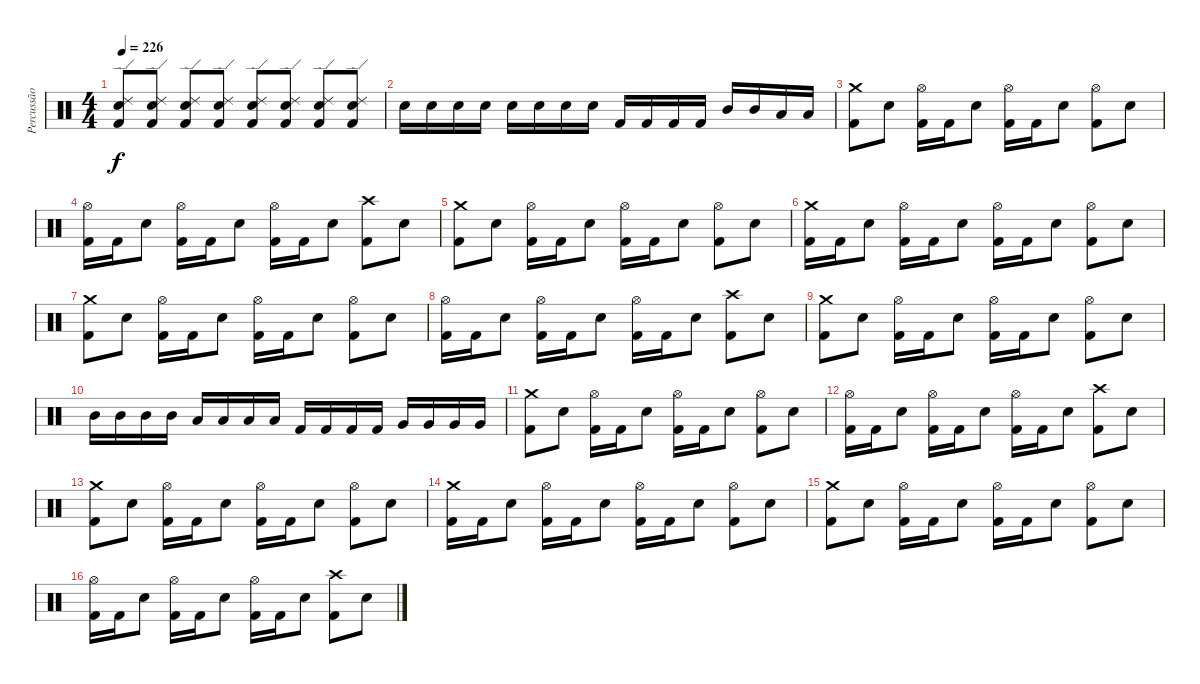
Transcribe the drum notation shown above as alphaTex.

\track ("Percussão" "Percussão") {instrument percussion}
\staff {score}
\articulation defaults
\ts (4 4)
\tempo 226
\clef neutral
\ks c
("Ride (edge) 2" "Electric Snare (hit)" "Kick (hit) 2").8{dy f} ("Ride (edge) 2" "Electric Snare (hit)" "Kick (hit) 2").8 ("Ride (edge) 2" "Electric Snare (hit)" "Kick (hit) 2").8 ("Ride (edge) 2" "Electric Snare (hit)" "Kick (hit) 2").8 ("Ride (edge) 2" "Electric Snare (hit)" "Kick (hit) 2").8 ("Ride (edge) 2" "Electric Snare (hit)" "Kick (hit) 2").8 ("Ride (edge) 2" "Electric Snare (hit)" "Kick (hit) 2").8 ("Ride (edge) 2" "Electric Snare (hit)" "Kick (hit) 2").8 |
"Electric Snare (hit)".16 "Electric Snare (hit)".16 "Electric Snare (hit)".16 "Electric Snare (hit)".16 "Electric Snare (hit)".16 "Electric Snare (hit)".16 "Electric Snare (hit)".16 "Electric Snare (hit)".16 "Kick (hit) 2".16 "Kick (hit) 2".16 "Kick (hit) 2".16 "Kick (hit) 2".16 "Mid Tom (hit)".16 "Mid Tom (hit)".16 "Low Tom (hit)".16 "Low Tom (hit)".16 |
("Crash medium (hit)" "Kick (hit) 2").8 "Electric Snare (hit)".8 ("Hi-Hat (open)" "Kick (hit) 2").16 "Kick (hit) 2".16 "Electric Snare (hit)".8 ("Hi-Hat (open)" "Kick (hit) 2").16 "Kick (hit) 2".16 "Electric Snare (hit)".8 ("Hi-Hat (open)" "Kick (hit) 2").8 "Electric Snare (hit)".8 |
("Hi-Hat (open)" "Kick (hit) 2").16 "Kick (hit) 2".16 "Electric Snare (hit)".8 ("Hi-Hat (open)" "Kick (hit) 2").16 "Kick (hit) 2".16 "Electric Snare (hit)".8 ("Hi-Hat (open)" "Kick (hit) 2").16 "Kick (hit) 2".16 "Electric Snare (hit)".8 ("Crash high (hit)" "Kick (hit) 2").8 "Electric Snare (hit)".8 |
("Crash medium (hit)" "Kick (hit) 2").8 "Electric Snare (hit)".8 ("Hi-Hat (open)" "Kick (hit) 2").16 "Kick (hit) 2".16 "Electric Snare (hit)".8 ("Hi-Hat (open)" "Kick (hit) 2").16 "Kick (hit) 2".16 "Electric Snare (hit)".8 ("Hi-Hat (open)" "Kick (hit) 2").8 "Electric Snare (hit)".8 |
("Crash medium (hit)" "Kick (hit) 2").16 "Kick (hit) 2".16 "Electric Snare (hit)".8 ("Hi-Hat (open)" "Kick (hit) 2").16 "Kick (hit) 2".16 "Electric Snare (hit)".8 ("Hi-Hat (open)" "Kick (hit) 2").16 "Kick (hit) 2".16 "Electric Snare (hit)".8 ("Hi-Hat (open)" "Kick (hit) 2").8 "Electric Snare (hit)".8 |
("Crash medium (hit)" "Kick (hit) 2").8 "Electric Snare (hit)".8 ("Hi-Hat (open)" "Kick (hit) 2").16 "Kick (hit) 2".16 "Electric Snare (hit)".8 ("Hi-Hat (open)" "Kick (hit) 2").16 "Kick (hit) 2".16 "Electric Snare (hit)".8 ("Hi-Hat (open)" "Kick (hit) 2").8 "Electric Snare (hit)".8 |
("Hi-Hat (open)" "Kick (hit) 2").16 "Kick (hit) 2".16 "Electric Snare (hit)".8 ("Hi-Hat (open)" "Kick (hit) 2").16 "Kick (hit) 2".16 "Electric Snare (hit)".8 ("Hi-Hat (open)" "Kick (hit) 2").16 "Kick (hit) 2".16 "Electric Snare (hit)".8 ("Crash high (hit)" "Kick (hit) 2").8 "Electric Snare (hit)".8 |
("Crash medium (hit)" "Kick (hit) 2").8 "Electric Snare (hit)".8 ("Hi-Hat (open)" "Kick (hit) 2").16 "Kick (hit) 2".16 "Electric Snare (hit)".8 ("Hi-Hat (open)" "Kick (hit) 2").16 "Kick (hit) 2".16 "Electric Snare (hit)".8 ("Hi-Hat (open)" "Kick (hit) 2").8 "Electric Snare (hit)".8 |
"Mid Tom (hit)".16 "Mid Tom (hit)".16 "Mid Tom (hit)".16 "Mid Tom (hit)".16 "Low Tom (hit)".16 "Low Tom (hit)".16 "Low Tom (hit)".16 "Low Tom (hit)".16 "Kick (hit) 2".16 "Kick (hit) 2".16 "Kick (hit) 2".16 "Kick (hit) 2".16 "Very Low Tom (hit)".16 "Very Low Tom (hit)".16 "Very Low Tom (hit)".16 "Very Low Tom (hit)".16 |
("Crash medium (hit)" "Kick (hit) 2").8 "Electric Snare (hit)".8 ("Hi-Hat (open)" "Kick (hit) 2").16 "Kick (hit) 2".16 "Electric Snare (hit)".8 ("Hi-Hat (open)" "Kick (hit) 2").16 "Kick (hit) 2".16 "Electric Snare (hit)".8 ("Hi-Hat (open)" "Kick (hit) 2").8 "Electric Snare (hit)".8 |
("Hi-Hat (open)" "Kick (hit) 2").16 "Kick (hit) 2".16 "Electric Snare (hit)".8 ("Hi-Hat (open)" "Kick (hit) 2").16 "Kick (hit) 2".16 "Electric Snare (hit)".8 ("Hi-Hat (open)" "Kick (hit) 2").16 "Kick (hit) 2".16 "Electric Snare (hit)".8 ("Crash high (hit)" "Kick (hit) 2").8 "Electric Snare (hit)".8 |
("Crash medium (hit)" "Kick (hit) 2").8 "Electric Snare (hit)".8 ("Hi-Hat (open)" "Kick (hit) 2").16 "Kick (hit) 2".16 "Electric Snare (hit)".8 ("Hi-Hat (open)" "Kick (hit) 2").16 "Kick (hit) 2".16 "Electric Snare (hit)".8 ("Hi-Hat (open)" "Kick (hit) 2").8 "Electric Snare (hit)".8 |
("Crash medium (hit)" "Kick (hit) 2").16 "Kick (hit) 2".16 "Electric Snare (hit)".8 ("Hi-Hat (open)" "Kick (hit) 2").16 "Kick (hit) 2".16 "Electric Snare (hit)".8 ("Hi-Hat (open)" "Kick (hit) 2").16 "Kick (hit) 2".16 "Electric Snare (hit)".8 ("Hi-Hat (open)" "Kick (hit) 2").8 "Electric Snare (hit)".8 |
("Crash medium (hit)" "Kick (hit) 2").8 "Electric Snare (hit)".8 ("Hi-Hat (open)" "Kick (hit) 2").16 "Kick (hit) 2".16 "Electric Snare (hit)".8 ("Hi-Hat (open)" "Kick (hit) 2").16 "Kick (hit) 2".16 "Electric Snare (hit)".8 ("Hi-Hat (open)" "Kick (hit) 2").8 "Electric Snare (hit)".8 |
("Hi-Hat (open)" "Kick (hit) 2").16 "Kick (hit) 2".16 "Electric Snare (hit)".8 ("Hi-Hat (open)" "Kick (hit) 2").16 "Kick (hit) 2".16 "Electric Snare (hit)".8 ("Hi-Hat (open)" "Kick (hit) 2").16 "Kick (hit) 2".16 "Electric Snare (hit)".8 ("Crash high (hit)" "Kick (hit) 2").8 "Electric Snare (hit)".8
